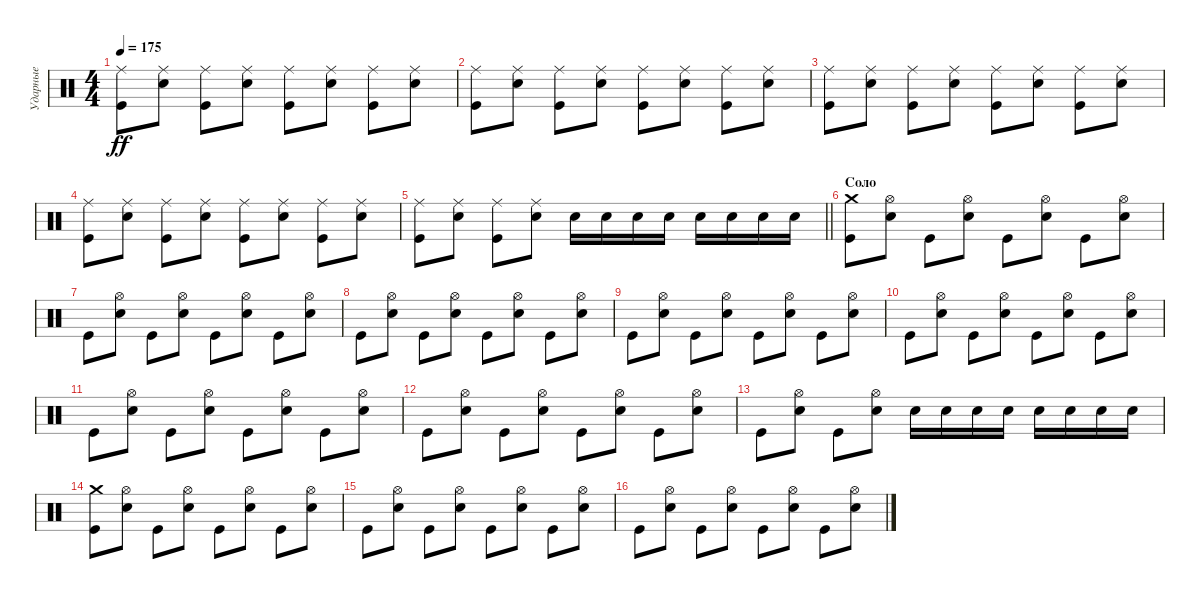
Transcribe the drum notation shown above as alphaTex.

\track ("Ударные" "Ударные") {instrument percussion}
\staff {score}
\articulation defaults
\ts (4 4)
\tempo 175
\clef neutral
\ks c
("Ride (middle)" "Kick (hit)").8{dy ff} ("Ride (middle)" "Electric Snare (hit)").8 ("Ride (middle)" "Kick (hit)").8 ("Ride (middle)" "Electric Snare (hit)").8 ("Ride (middle)" "Kick (hit)").8 ("Ride (middle)" "Electric Snare (hit)").8 ("Ride (middle)" "Kick (hit)").8 ("Ride (middle)" "Electric Snare (hit)").8 |
("Ride (middle)" "Kick (hit)").8 ("Ride (middle)" "Electric Snare (hit)").8 ("Ride (middle)" "Kick (hit)").8 ("Ride (middle)" "Electric Snare (hit)").8 ("Ride (middle)" "Kick (hit)").8 ("Ride (middle)" "Electric Snare (hit)").8 ("Ride (middle)" "Kick (hit)").8 ("Ride (middle)" "Electric Snare (hit)").8 |
("Ride (middle)" "Kick (hit)").8 ("Ride (middle)" "Electric Snare (hit)").8 ("Ride (middle)" "Kick (hit)").8 ("Ride (middle)" "Electric Snare (hit)").8 ("Ride (middle)" "Kick (hit)").8 ("Ride (middle)" "Electric Snare (hit)").8 ("Ride (middle)" "Kick (hit)").8 ("Ride (middle)" "Electric Snare (hit)").8 |
("Ride (middle)" "Kick (hit)").8 ("Ride (middle)" "Electric Snare (hit)").8 ("Ride (middle)" "Kick (hit)").8 ("Ride (middle)" "Electric Snare (hit)").8 ("Ride (middle)" "Kick (hit)").8 ("Ride (middle)" "Electric Snare (hit)").8 ("Ride (middle)" "Kick (hit)").8 ("Ride (middle)" "Electric Snare (hit)").8 |
\barLineRight lightlight
("Ride (middle)" "Kick (hit)").8 ("Ride (middle)" "Electric Snare (hit)").8 ("Ride (middle)" "Kick (hit)").8 ("Ride (middle)" "Electric Snare (hit)").8 "Electric Snare (hit)".16 "Electric Snare (hit)".16 "Electric Snare (hit)".16 "Electric Snare (hit)".16 "Electric Snare (hit)".16 "Electric Snare (hit)".16 "Electric Snare (hit)".16 "Electric Snare (hit)".16 |
\section ("" "Соло")
("Crash medium (hit)" "Kick (hit)").8 ("Hi-Hat (open)" "Electric Snare (hit)").8 "Kick (hit)".8 ("Hi-Hat (open)" "Electric Snare (hit)").8 "Kick (hit)".8 ("Hi-Hat (open)" "Electric Snare (hit)").8 "Kick (hit)".8 ("Hi-Hat (open)" "Electric Snare (hit)").8 |
"Kick (hit)".8 ("Hi-Hat (open)" "Electric Snare (hit)").8 "Kick (hit)".8 ("Hi-Hat (open)" "Electric Snare (hit)").8 "Kick (hit)".8 ("Hi-Hat (open)" "Electric Snare (hit)").8 "Kick (hit)".8 ("Hi-Hat (open)" "Electric Snare (hit)").8 |
"Kick (hit)".8 ("Hi-Hat (open)" "Electric Snare (hit)").8 "Kick (hit)".8 ("Hi-Hat (open)" "Electric Snare (hit)").8 "Kick (hit)".8 ("Hi-Hat (open)" "Electric Snare (hit)").8 "Kick (hit)".8 ("Hi-Hat (open)" "Electric Snare (hit)").8 |
"Kick (hit)".8 ("Hi-Hat (open)" "Electric Snare (hit)").8 "Kick (hit)".8 ("Hi-Hat (open)" "Electric Snare (hit)").8 "Kick (hit)".8 ("Hi-Hat (open)" "Electric Snare (hit)").8 "Kick (hit)".8 ("Hi-Hat (open)" "Electric Snare (hit)").8 |
"Kick (hit)".8 ("Hi-Hat (open)" "Electric Snare (hit)").8 "Kick (hit)".8 ("Hi-Hat (open)" "Electric Snare (hit)").8 "Kick (hit)".8 ("Hi-Hat (open)" "Electric Snare (hit)").8 "Kick (hit)".8 ("Hi-Hat (open)" "Electric Snare (hit)").8 |
"Kick (hit)".8 ("Hi-Hat (open)" "Electric Snare (hit)").8 "Kick (hit)".8 ("Hi-Hat (open)" "Electric Snare (hit)").8 "Kick (hit)".8 ("Hi-Hat (open)" "Electric Snare (hit)").8 "Kick (hit)".8 ("Hi-Hat (open)" "Electric Snare (hit)").8 |
"Kick (hit)".8 ("Hi-Hat (open)" "Electric Snare (hit)").8 "Kick (hit)".8 ("Hi-Hat (open)" "Electric Snare (hit)").8 "Kick (hit)".8 ("Hi-Hat (open)" "Electric Snare (hit)").8 "Kick (hit)".8 ("Hi-Hat (open)" "Electric Snare (hit)").8 |
"Kick (hit)".8 ("Hi-Hat (open)" "Electric Snare (hit)").8 "Kick (hit)".8 ("Hi-Hat (open)" "Electric Snare (hit)").8 "Electric Snare (hit)".16 "Electric Snare (hit)".16 "Electric Snare (hit)".16 "Electric Snare (hit)".16 "Electric Snare (hit)".16 "Electric Snare (hit)".16 "Electric Snare (hit)".16 "Electric Snare (hit)".16 |
("Crash medium (hit)" "Kick (hit)").8 ("Hi-Hat (open)" "Electric Snare (hit)").8 "Kick (hit)".8 ("Hi-Hat (open)" "Electric Snare (hit)").8 "Kick (hit)".8 ("Hi-Hat (open)" "Electric Snare (hit)").8 "Kick (hit)".8 ("Hi-Hat (open)" "Electric Snare (hit)").8 |
"Kick (hit)".8 ("Hi-Hat (open)" "Electric Snare (hit)").8 "Kick (hit)".8 ("Hi-Hat (open)" "Electric Snare (hit)").8 "Kick (hit)".8 ("Hi-Hat (open)" "Electric Snare (hit)").8 "Kick (hit)".8 ("Hi-Hat (open)" "Electric Snare (hit)").8 |
"Kick (hit)".8 ("Hi-Hat (open)" "Electric Snare (hit)").8 "Kick (hit)".8 ("Hi-Hat (open)" "Electric Snare (hit)").8 "Kick (hit)".8 ("Hi-Hat (open)" "Electric Snare (hit)").8 "Kick (hit)".8 ("Hi-Hat (open)" "Electric Snare (hit)").8
